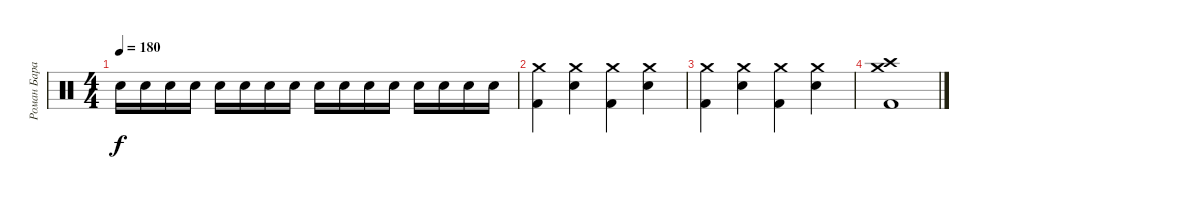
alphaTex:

\track ("Роман Баранюк" "Роман Бара") {instrument percussion}
\staff {score}
\articulation defaults
\ts (4 4)
\tempo 180
\clef neutral
\ks c "Snare (hit) 2".16{dy f} "Snare (hit) 2".16 "Snare (hit) 2".16 "Snare (hit) 2".16 "Snare (hit) 2".16 "Snare (hit) 2".16 "Snare (hit) 2".16 "Snare (hit) 2".16 "Snare (hit) 2".16 "Snare (hit) 2".16 "Snare (hit) 2".16 "Snare (hit) 2".16 "Snare (hit) 2".16 "Snare (hit) 2".16 "Snare (hit) 2".16 "Snare (hit) 2".16
|
("Crash medium (hit)" "Kick (hit) 2").4 ("Crash medium (hit)" "Snare (hit) 2").4 ("Crash medium (hit)" "Kick (hit) 2").4 ("Crash medium (hit)" "Snare (hit) 2").4 |
("Crash medium (hit)" "Kick (hit) 2").4 ("Crash medium (hit)" "Snare (hit) 2").4 ("Crash medium (hit)" "Kick (hit) 2").4 ("Crash medium (hit)" "Snare (hit) 2").4 |
("Crash high (hit)" "Crash medium (hit)" "Kick (hit) 2").1
